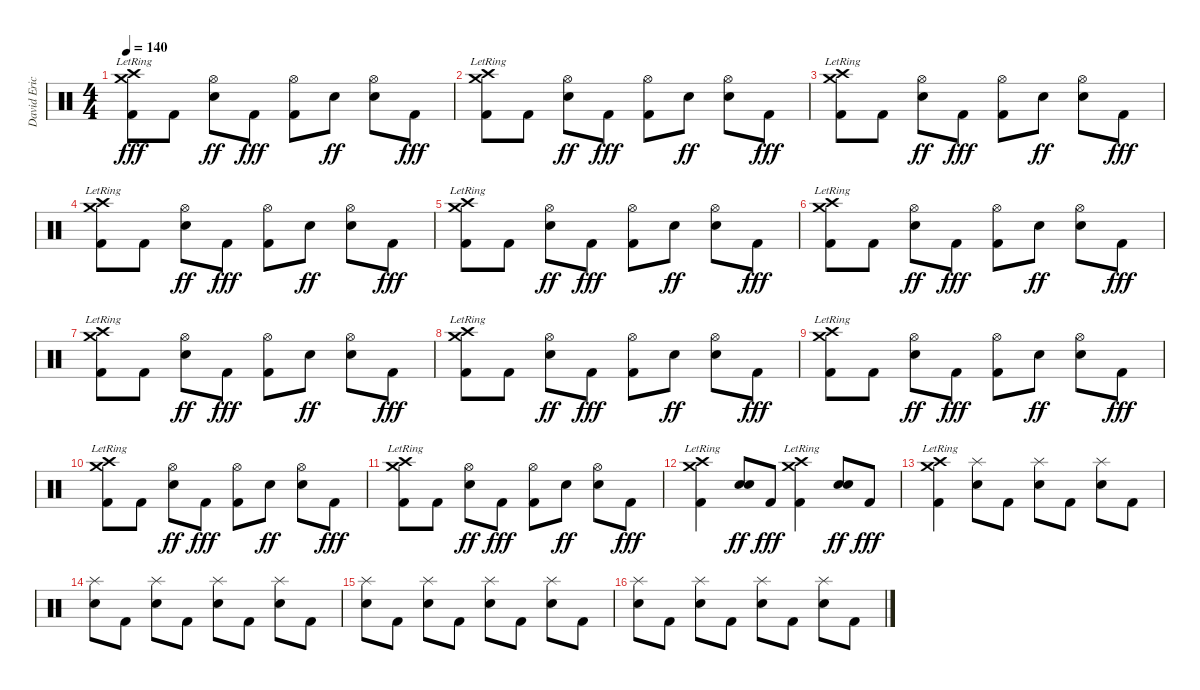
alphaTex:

\track ("David Eric Grohl" "David Eric") {instrument percussion}
\staff {score}
\articulation defaults
\ts (4 4)
\tempo 140
\clef neutral
\ks c
("Crash high (hit)"{lr} "Crash medium (hit)"{lr} "Kick (hit) 2").8{dy fff} "Kick (hit) 2".8 ("Hi-Hat (open)" "Electric Snare (hit)").8{dy ff} "Kick (hit) 2".8{dy fff} ("Hi-Hat (open)" "Kick (hit) 2").8 "Electric Snare (hit)".8{dy ff} ("Hi-Hat (open)" "Electric Snare (hit)").8 "Kick (hit) 2".8{dy fff} |
("Crash high (hit)"{lr} "Crash medium (hit)"{lr} "Kick (hit) 2").8 "Kick (hit) 2".8 ("Hi-Hat (open)" "Electric Snare (hit)").8{dy ff} "Kick (hit) 2".8{dy fff} ("Hi-Hat (open)" "Kick (hit) 2").8 "Electric Snare (hit)".8{dy ff} ("Hi-Hat (open)" "Electric Snare (hit)").8 "Kick (hit) 2".8{dy fff} |
("Crash high (hit)"{lr} "Crash medium (hit)"{lr} "Kick (hit) 2").8 "Kick (hit) 2".8 ("Hi-Hat (open)" "Electric Snare (hit)").8{dy ff} "Kick (hit) 2".8{dy fff} ("Hi-Hat (open)" "Kick (hit) 2").8 "Electric Snare (hit)".8{dy ff} ("Hi-Hat (open)" "Electric Snare (hit)").8 "Kick (hit) 2".8{dy fff} |
("Crash high (hit)"{lr} "Crash medium (hit)"{lr} "Kick (hit) 2").8 "Kick (hit) 2".8 ("Hi-Hat (open)" "Electric Snare (hit)").8{dy ff} "Kick (hit) 2".8{dy fff} ("Hi-Hat (open)" "Kick (hit) 2").8 "Electric Snare (hit)".8{dy ff} ("Hi-Hat (open)" "Electric Snare (hit)").8 "Kick (hit) 2".8{dy fff} |
("Crash high (hit)"{lr} "Crash medium (hit)"{lr} "Kick (hit) 2").8 "Kick (hit) 2".8 ("Hi-Hat (open)" "Electric Snare (hit)").8{dy ff} "Kick (hit) 2".8{dy fff} ("Hi-Hat (open)" "Kick (hit) 2").8 "Electric Snare (hit)".8{dy ff} ("Hi-Hat (open)" "Electric Snare (hit)").8 "Kick (hit) 2".8{dy fff} |
("Crash high (hit)"{lr} "Crash medium (hit)"{lr} "Kick (hit) 2").8 "Kick (hit) 2".8 ("Hi-Hat (open)" "Electric Snare (hit)").8{dy ff} "Kick (hit) 2".8{dy fff} ("Hi-Hat (open)" "Kick (hit) 2").8 "Electric Snare (hit)".8{dy ff} ("Hi-Hat (open)" "Electric Snare (hit)").8 "Kick (hit) 2".8{dy fff} |
("Crash high (hit)"{lr} "Crash medium (hit)"{lr} "Kick (hit) 2").8 "Kick (hit) 2".8 ("Hi-Hat (open)" "Electric Snare (hit)").8{dy ff} "Kick (hit) 2".8{dy fff} ("Hi-Hat (open)" "Kick (hit) 2").8 "Electric Snare (hit)".8{dy ff} ("Hi-Hat (open)" "Electric Snare (hit)").8 "Kick (hit) 2".8{dy fff} |
("Crash high (hit)"{lr} "Crash medium (hit)"{lr} "Kick (hit) 2").8 "Kick (hit) 2".8 ("Hi-Hat (open)" "Electric Snare (hit)").8{dy ff} "Kick (hit) 2".8{dy fff} ("Hi-Hat (open)" "Kick (hit) 2").8 "Electric Snare (hit)".8{dy ff} ("Hi-Hat (open)" "Electric Snare (hit)").8 "Kick (hit) 2".8{dy fff} |
("Crash high (hit)"{lr} "Crash medium (hit)"{lr} "Kick (hit) 2").8 "Kick (hit) 2".8 ("Hi-Hat (open)" "Electric Snare (hit)").8{dy ff} "Kick (hit) 2".8{dy fff} ("Hi-Hat (open)" "Kick (hit) 2").8 "Electric Snare (hit)".8{dy ff} ("Hi-Hat (open)" "Electric Snare (hit)").8 "Kick (hit) 2".8{dy fff} |
("Crash high (hit)"{lr} "Crash medium (hit)"{lr} "Kick (hit) 2").8 "Kick (hit) 2".8 ("Hi-Hat (open)" "Electric Snare (hit)").8{dy ff} "Kick (hit) 2".8{dy fff} ("Hi-Hat (open)" "Kick (hit) 2").8 "Electric Snare (hit)".8{dy ff} ("Hi-Hat (open)" "Electric Snare (hit)").8 "Kick (hit) 2".8{dy fff} |
("Crash high (hit)"{lr} "Crash medium (hit)"{lr} "Kick (hit) 2").8 "Kick (hit) 2".8 ("Hi-Hat (open)" "Electric Snare (hit)").8{dy ff} "Kick (hit) 2".8{dy fff} ("Hi-Hat (open)" "Kick (hit) 2").8 "Electric Snare (hit)".8{dy ff} ("Hi-Hat (open)" "Electric Snare (hit)").8 "Kick (hit) 2".8{dy fff} |
("Crash high (hit)"{lr} "Crash medium (hit)"{lr} "Kick (hit) 2").4 ("Electric Snare (hit)" "Electric Snare (hit)").8{dy ff} "Kick (hit) 2".8{dy fff} ("Crash high (hit)"{lr} "Crash medium (hit)"{lr} "Kick (hit) 2").4 ("Electric Snare (hit)" "Electric Snare (hit)").8{dy ff} "Kick (hit) 2".8{dy fff} |
("Crash high (hit)"{lr} "Crash medium (hit)"{lr} "Kick (hit) 2").4 ("Electric Snare (hit)" "Splash (hit)").8 "Kick (hit) 2".8 ("Electric Snare (hit)" "Splash (hit)").8 "Kick (hit) 2".8 ("Electric Snare (hit)" "Splash (hit)").8 "Kick (hit) 2".8 |
("Electric Snare (hit)" "Splash (hit)").8 "Kick (hit) 2".8 ("Electric Snare (hit)" "Splash (hit)").8 "Kick (hit) 2".8 ("Electric Snare (hit)" "Splash (hit)").8 "Kick (hit) 2".8 ("Electric Snare (hit)" "Splash (hit)").8 "Kick (hit) 2".8 |
("Electric Snare (hit)" "Splash (hit)").8 "Kick (hit) 2".8 ("Electric Snare (hit)" "Splash (hit)").8 "Kick (hit) 2".8 ("Electric Snare (hit)" "Splash (hit)").8 "Kick (hit) 2".8 ("Electric Snare (hit)" "Splash (hit)").8 "Kick (hit) 2".8 |
("Electric Snare (hit)" "Splash (hit)").8 "Kick (hit) 2".8 ("Electric Snare (hit)" "Splash (hit)").8 "Kick (hit) 2".8 ("Electric Snare (hit)" "Splash (hit)").8 "Kick (hit) 2".8 ("Electric Snare (hit)" "Splash (hit)").8 "Kick (hit) 2".8
